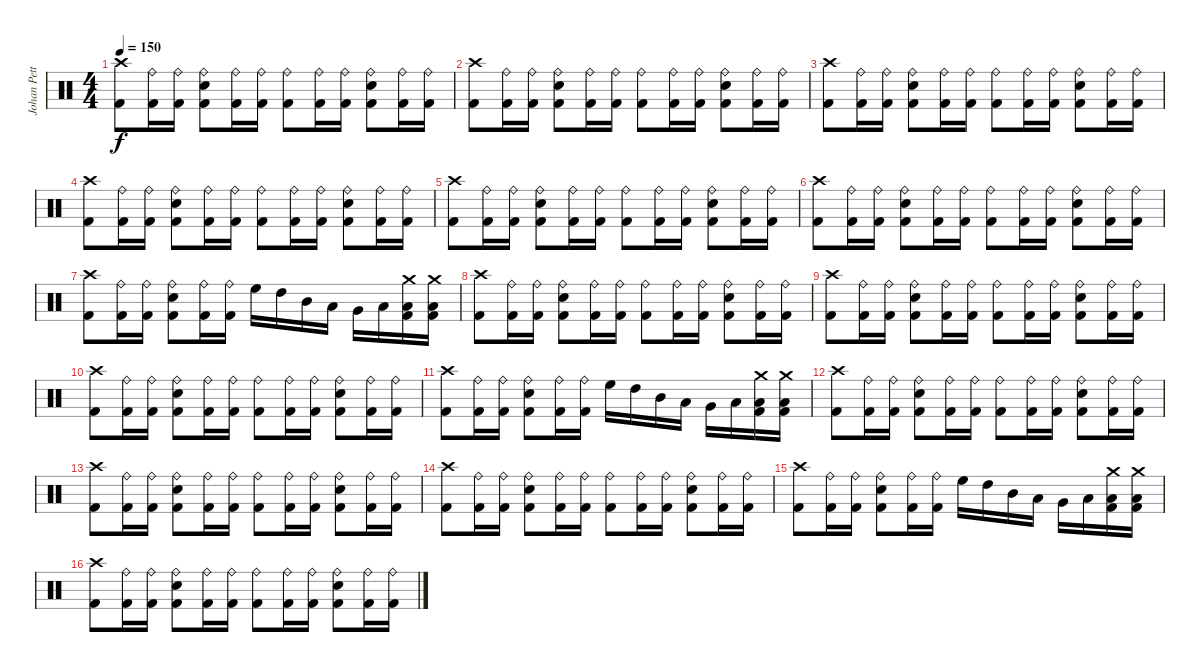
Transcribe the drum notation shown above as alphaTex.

\track ("Johan Petterson" "Johan Pett") {instrument percussion}
\staff {score}
\articulation defaults
\ts (4 4)
\tempo 150
\clef neutral
\ks c
("Crash high (hit)" "Kick (hit) 2").8{dy f} ("Ride (bell)" "Kick (hit) 2").16 ("Ride (bell)" "Kick (hit) 2").16 ("Ride (bell)" "Snare (hit) 2" "Kick (hit) 2").8 ("Ride (bell)" "Kick (hit) 2").16 ("Ride (bell)" "Kick (hit) 2").16 ("Ride (bell)" "Kick (hit) 2").8 ("Ride (bell)" "Kick (hit) 2").16 ("Ride (bell)" "Kick (hit) 2").16 ("Ride (bell)" "Snare (hit) 2" "Kick (hit) 2").8 ("Ride (bell)" "Kick (hit) 2").16 ("Ride (bell)" "Kick (hit) 2").16 |
("Crash high (hit)" "Kick (hit) 2").8 ("Ride (bell)" "Kick (hit) 2").16 ("Ride (bell)" "Kick (hit) 2").16 ("Ride (bell)" "Snare (hit) 2" "Kick (hit) 2").8 ("Ride (bell)" "Kick (hit) 2").16 ("Ride (bell)" "Kick (hit) 2").16 ("Ride (bell)" "Kick (hit) 2").8 ("Ride (bell)" "Kick (hit) 2").16 ("Ride (bell)" "Kick (hit) 2").16 ("Ride (bell)" "Snare (hit) 2" "Kick (hit) 2").8 ("Ride (bell)" "Kick (hit) 2").16 ("Ride (bell)" "Kick (hit) 2").16 |
("Crash high (hit)" "Kick (hit) 2").8 ("Ride (bell)" "Kick (hit) 2").16 ("Ride (bell)" "Kick (hit) 2").16 ("Ride (bell)" "Snare (hit) 2" "Kick (hit) 2").8 ("Ride (bell)" "Kick (hit) 2").16 ("Ride (bell)" "Kick (hit) 2").16 ("Ride (bell)" "Kick (hit) 2").8 ("Ride (bell)" "Kick (hit) 2").16 ("Ride (bell)" "Kick (hit) 2").16 ("Ride (bell)" "Snare (hit) 2" "Kick (hit) 2").8 ("Ride (bell)" "Kick (hit) 2").16 ("Ride (bell)" "Kick (hit) 2").16 |
("Crash high (hit)" "Kick (hit) 2").8 ("Ride (bell)" "Kick (hit) 2").16 ("Ride (bell)" "Kick (hit) 2").16 ("Ride (bell)" "Snare (hit) 2" "Kick (hit) 2").8 ("Ride (bell)" "Kick (hit) 2").16 ("Ride (bell)" "Kick (hit) 2").16 ("Ride (bell)" "Kick (hit) 2").8 ("Ride (bell)" "Kick (hit) 2").16 ("Ride (bell)" "Kick (hit) 2").16 ("Ride (bell)" "Snare (hit) 2" "Kick (hit) 2").8 ("Ride (bell)" "Kick (hit) 2").16 ("Ride (bell)" "Kick (hit) 2").16 |
("Crash high (hit)" "Kick (hit) 2").8 ("Ride (bell)" "Kick (hit) 2").16 ("Ride (bell)" "Kick (hit) 2").16 ("Ride (bell)" "Snare (hit) 2" "Kick (hit) 2").8 ("Ride (bell)" "Kick (hit) 2").16 ("Ride (bell)" "Kick (hit) 2").16 ("Ride (bell)" "Kick (hit) 2").8 ("Ride (bell)" "Kick (hit) 2").16 ("Ride (bell)" "Kick (hit) 2").16 ("Ride (bell)" "Snare (hit) 2" "Kick (hit) 2").8 ("Ride (bell)" "Kick (hit) 2").16 ("Ride (bell)" "Kick (hit) 2").16 |
("Crash high (hit)" "Kick (hit) 2").8 ("Ride (bell)" "Kick (hit) 2").16 ("Ride (bell)" "Kick (hit) 2").16 ("Ride (bell)" "Snare (hit) 2" "Kick (hit) 2").8 ("Ride (bell)" "Kick (hit) 2").16 ("Ride (bell)" "Kick (hit) 2").16 ("Ride (bell)" "Kick (hit) 2").8 ("Ride (bell)" "Kick (hit) 2").16 ("Ride (bell)" "Kick (hit) 2").16 ("Ride (bell)" "Snare (hit) 2" "Kick (hit) 2").8 ("Ride (bell)" "Kick (hit) 2").16 ("Ride (bell)" "Kick (hit) 2").16 |
("Crash high (hit)" "Kick (hit) 2").8 ("Ride (bell)" "Kick (hit) 2").16 ("Ride (bell)" "Kick (hit) 2").16 ("Ride (bell)" "Snare (hit) 2" "Kick (hit) 2").8 ("Ride (bell)" "Kick (hit) 2").16 ("Ride (bell)" "Kick (hit) 2").16 "High Floor Tom (hit)".16 "High Tom (hit)".16 "Mid Tom (hit)".16 "Low Tom (hit)".16 "Very Low Tom (hit)".16 "Low Floor Tom (hit)".16 ("Crash medium (hit)" "Low Floor Tom (hit)" "Kick (hit) 2").16 ("Crash medium (hit)" "Low Floor Tom (hit)" "Kick (hit) 2").16 |
("Crash high (hit)" "Kick (hit) 2").8 ("Ride (bell)" "Kick (hit) 2").16 ("Ride (bell)" "Kick (hit) 2").16 ("Ride (bell)" "Snare (hit) 2" "Kick (hit) 2").8 ("Ride (bell)" "Kick (hit) 2").16 ("Ride (bell)" "Kick (hit) 2").16 ("Ride (bell)" "Kick (hit) 2").8 ("Ride (bell)" "Kick (hit) 2").16 ("Ride (bell)" "Kick (hit) 2").16 ("Ride (bell)" "Snare (hit) 2" "Kick (hit) 2").8 ("Ride (bell)" "Kick (hit) 2").16 ("Ride (bell)" "Kick (hit) 2").16 |
("Crash high (hit)" "Kick (hit) 2").8 ("Ride (bell)" "Kick (hit) 2").16 ("Ride (bell)" "Kick (hit) 2").16 ("Ride (bell)" "Snare (hit) 2" "Kick (hit) 2").8 ("Ride (bell)" "Kick (hit) 2").16 ("Ride (bell)" "Kick (hit) 2").16 ("Ride (bell)" "Kick (hit) 2").8 ("Ride (bell)" "Kick (hit) 2").16 ("Ride (bell)" "Kick (hit) 2").16 ("Ride (bell)" "Snare (hit) 2" "Kick (hit) 2").8 ("Ride (bell)" "Kick (hit) 2").16 ("Ride (bell)" "Kick (hit) 2").16 |
("Crash high (hit)" "Kick (hit) 2").8 ("Ride (bell)" "Kick (hit) 2").16 ("Ride (bell)" "Kick (hit) 2").16 ("Ride (bell)" "Snare (hit) 2" "Kick (hit) 2").8 ("Ride (bell)" "Kick (hit) 2").16 ("Ride (bell)" "Kick (hit) 2").16 ("Ride (bell)" "Kick (hit) 2").8 ("Ride (bell)" "Kick (hit) 2").16 ("Ride (bell)" "Kick (hit) 2").16 ("Ride (bell)" "Snare (hit) 2" "Kick (hit) 2").8 ("Ride (bell)" "Kick (hit) 2").16 ("Ride (bell)" "Kick (hit) 2").16 |
("Crash high (hit)" "Kick (hit) 2").8 ("Ride (bell)" "Kick (hit) 2").16 ("Ride (bell)" "Kick (hit) 2").16 ("Ride (bell)" "Snare (hit) 2" "Kick (hit) 2").8 ("Ride (bell)" "Kick (hit) 2").16 ("Ride (bell)" "Kick (hit) 2").16 "High Floor Tom (hit)".16 "High Tom (hit)".16 "Mid Tom (hit)".16 "Low Tom (hit)".16 "Very Low Tom (hit)".16 "Low Floor Tom (hit)".16 ("Crash medium (hit)" "Low Floor Tom (hit)" "Kick (hit) 2").16 ("Crash medium (hit)" "Low Floor Tom (hit)" "Kick (hit) 2").16 |
("Crash high (hit)" "Kick (hit) 2").8 ("Ride (bell)" "Kick (hit) 2").16 ("Ride (bell)" "Kick (hit) 2").16 ("Ride (bell)" "Snare (hit) 2" "Kick (hit) 2").8 ("Ride (bell)" "Kick (hit) 2").16 ("Ride (bell)" "Kick (hit) 2").16 ("Ride (bell)" "Kick (hit) 2").8 ("Ride (bell)" "Kick (hit) 2").16 ("Ride (bell)" "Kick (hit) 2").16 ("Ride (bell)" "Snare (hit) 2" "Kick (hit) 2").8 ("Ride (bell)" "Kick (hit) 2").16 ("Ride (bell)" "Kick (hit) 2").16 |
("Crash high (hit)" "Kick (hit) 2").8 ("Ride (bell)" "Kick (hit) 2").16 ("Ride (bell)" "Kick (hit) 2").16 ("Ride (bell)" "Snare (hit) 2" "Kick (hit) 2").8 ("Ride (bell)" "Kick (hit) 2").16 ("Ride (bell)" "Kick (hit) 2").16 ("Ride (bell)" "Kick (hit) 2").8 ("Ride (bell)" "Kick (hit) 2").16 ("Ride (bell)" "Kick (hit) 2").16 ("Ride (bell)" "Snare (hit) 2" "Kick (hit) 2").8 ("Ride (bell)" "Kick (hit) 2").16 ("Ride (bell)" "Kick (hit) 2").16 |
("Crash high (hit)" "Kick (hit) 2").8 ("Ride (bell)" "Kick (hit) 2").16 ("Ride (bell)" "Kick (hit) 2").16 ("Ride (bell)" "Snare (hit) 2" "Kick (hit) 2").8 ("Ride (bell)" "Kick (hit) 2").16 ("Ride (bell)" "Kick (hit) 2").16 ("Ride (bell)" "Kick (hit) 2").8 ("Ride (bell)" "Kick (hit) 2").16 ("Ride (bell)" "Kick (hit) 2").16 ("Ride (bell)" "Snare (hit) 2" "Kick (hit) 2").8 ("Ride (bell)" "Kick (hit) 2").16 ("Ride (bell)" "Kick (hit) 2").16 |
("Crash high (hit)" "Kick (hit) 2").8 ("Ride (bell)" "Kick (hit) 2").16 ("Ride (bell)" "Kick (hit) 2").16 ("Ride (bell)" "Snare (hit) 2" "Kick (hit) 2").8 ("Ride (bell)" "Kick (hit) 2").16 ("Ride (bell)" "Kick (hit) 2").16 "High Floor Tom (hit)".16 "High Tom (hit)".16 "Mid Tom (hit)".16 "Low Tom (hit)".16 "Very Low Tom (hit)".16 "Low Floor Tom (hit)".16 ("Crash medium (hit)" "Low Floor Tom (hit)" "Kick (hit) 2").16 ("Crash medium (hit)" "Low Floor Tom (hit)" "Kick (hit) 2").16 |
("Crash high (hit)" "Kick (hit) 2").8 ("Ride (bell)" "Kick (hit) 2").16 ("Ride (bell)" "Kick (hit) 2").16 ("Ride (bell)" "Snare (hit) 2" "Kick (hit) 2").8 ("Ride (bell)" "Kick (hit) 2").16 ("Ride (bell)" "Kick (hit) 2").16 ("Ride (bell)" "Kick (hit) 2").8 ("Ride (bell)" "Kick (hit) 2").16 ("Ride (bell)" "Kick (hit) 2").16 ("Ride (bell)" "Snare (hit) 2" "Kick (hit) 2").8 ("Ride (bell)" "Kick (hit) 2").16 ("Ride (bell)" "Kick (hit) 2").16
